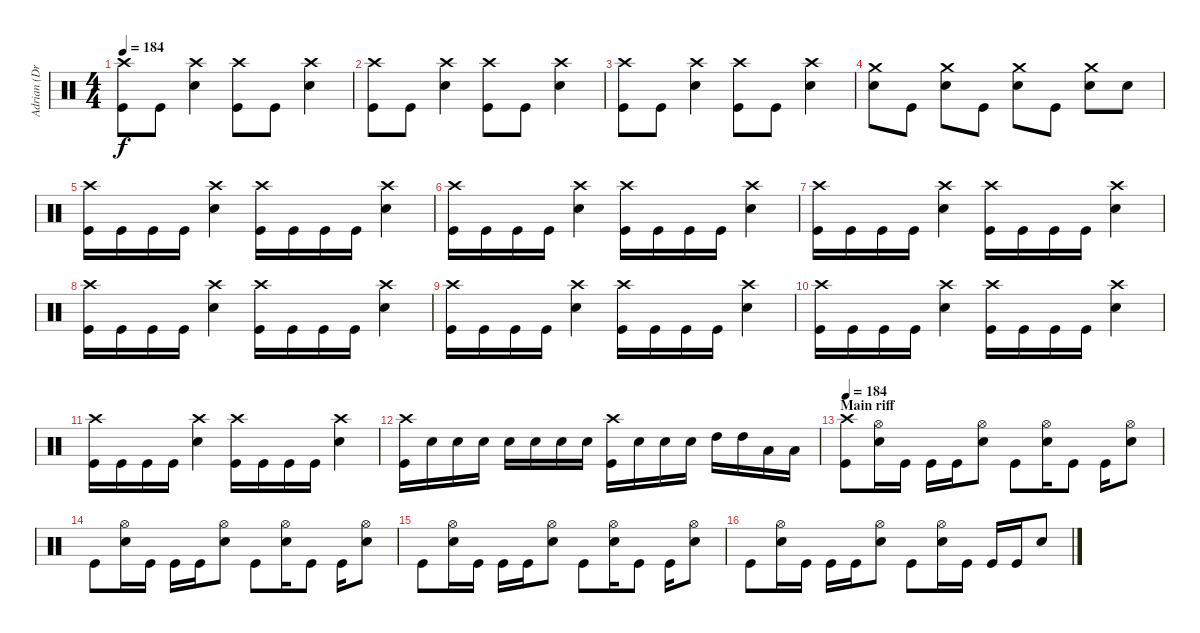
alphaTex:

\track ("Adrian (Drums)" "Adrian (Dr") {instrument percussion}
\staff {score}
\articulation defaults
\ts (4 4)
\tempo 184
\clef neutral
\ks c
("Crash high (hit)" "Kick (hit)").8{dy f} "Kick (hit)".8 ("Crash high (hit)" "Electric Snare (hit)").4 ("Crash high (hit)" "Kick (hit)").8 "Kick (hit)".8 ("Crash high (hit)" "Electric Snare (hit)").4 |
("Crash high (hit)" "Kick (hit)").8 "Kick (hit)".8 ("Crash high (hit)" "Electric Snare (hit)").4 ("Crash high (hit)" "Kick (hit)").8 "Kick (hit)".8 ("Crash high (hit)" "Electric Snare (hit)").4 |
("Crash high (hit)" "Kick (hit)").8 "Kick (hit)".8 ("Crash high (hit)" "Electric Snare (hit)").4 ("Crash high (hit)" "Kick (hit)").8 "Kick (hit)".8 ("Crash high (hit)" "Electric Snare (hit)").4 |
("Crash medium (hit)" "Electric Snare (hit)").8 "Kick (hit)".8 ("Crash medium (hit)" "Electric Snare (hit)").8 "Kick (hit)".8 ("Crash medium (hit)" "Electric Snare (hit)").8 "Kick (hit)".8 ("Crash medium (hit)" "Electric Snare (hit)").8 "Electric Snare (hit)".8 |
("Crash high (hit)" "Kick (hit)").16 "Kick (hit)".16 "Kick (hit)".16 "Kick (hit)".16 ("Crash high (hit)" "Electric Snare (hit)").4 ("Crash high (hit)" "Kick (hit)").16 "Kick (hit)".16 "Kick (hit)".16 "Kick (hit)".16 ("Crash high (hit)" "Electric Snare (hit)").4 |
("Crash high (hit)" "Kick (hit)").16 "Kick (hit)".16 "Kick (hit)".16 "Kick (hit)".16 ("Crash high (hit)" "Electric Snare (hit)").4 ("Crash high (hit)" "Kick (hit)").16 "Kick (hit)".16 "Kick (hit)".16 "Kick (hit)".16 ("Crash high (hit)" "Electric Snare (hit)").4 |
("Crash high (hit)" "Kick (hit)").16 "Kick (hit)".16 "Kick (hit)".16 "Kick (hit)".16 ("Crash high (hit)" "Electric Snare (hit)").4 ("Crash high (hit)" "Kick (hit)").16 "Kick (hit)".16 "Kick (hit)".16 "Kick (hit)".16 ("Crash high (hit)" "Electric Snare (hit)").4 |
("Crash high (hit)" "Kick (hit)").16 "Kick (hit)".16 "Kick (hit)".16 "Kick (hit)".16 ("Crash high (hit)" "Electric Snare (hit)").4 ("Crash high (hit)" "Kick (hit)").16 "Kick (hit)".16 "Kick (hit)".16 "Kick (hit)".16 ("Crash high (hit)" "Electric Snare (hit)").4 |
("Crash high (hit)" "Kick (hit)").16 "Kick (hit)".16 "Kick (hit)".16 "Kick (hit)".16 ("Crash high (hit)" "Electric Snare (hit)").4 ("Crash high (hit)" "Kick (hit)").16 "Kick (hit)".16 "Kick (hit)".16 "Kick (hit)".16 ("Crash high (hit)" "Electric Snare (hit)").4 |
("Crash high (hit)" "Kick (hit)").16 "Kick (hit)".16 "Kick (hit)".16 "Kick (hit)".16 ("Crash high (hit)" "Electric Snare (hit)").4 ("Crash high (hit)" "Kick (hit)").16 "Kick (hit)".16 "Kick (hit)".16 "Kick (hit)".16 ("Crash high (hit)" "Electric Snare (hit)").4 |
("Crash high (hit)" "Kick (hit)").16 "Kick (hit)".16 "Kick (hit)".16 "Kick (hit)".16 ("Crash high (hit)" "Electric Snare (hit)").4 ("Crash high (hit)" "Kick (hit)").16 "Kick (hit)".16 "Kick (hit)".16 "Kick (hit)".16 ("Crash high (hit)" "Electric Snare (hit)").4 |
("Crash high (hit)" "Kick (hit)").16 "Electric Snare (hit)".16 "Electric Snare (hit)".16 "Electric Snare (hit)".16 "Electric Snare (hit)".16 "Electric Snare (hit)".16 "Electric Snare (hit)".16 "Electric Snare (hit)".16 ("Crash high (hit)" "Kick (hit)").16 "Electric Snare (hit)".16 "Electric Snare (hit)".16 "Electric Snare (hit)".16 "High Tom (hit)".16 "High Tom (hit)".16 "Low Tom (hit)".16 "Low Tom (hit)".16 |
\section ("" "Main riff")
\tempo 184
("Crash high (hit)" "Kick (hit)").8 ("Hi-Hat (open)" "Electric Snare (hit)").16 "Kick (hit)".16 "Kick (hit)".16 "Kick (hit)".16 ("Hi-Hat (open)" "Electric Snare (hit)").8 "Kick (hit)".8 ("Hi-Hat (open)" "Electric Snare (hit)").16 "Kick (hit)".8 "Kick (hit)".16 ("Hi-Hat (open)" "Electric Snare (hit)").8 |
"Kick (hit)".8 ("Hi-Hat (open)" "Electric Snare (hit)").16 "Kick (hit)".16 "Kick (hit)".16 "Kick (hit)".16 ("Hi-Hat (open)" "Electric Snare (hit)").8 "Kick (hit)".8 ("Hi-Hat (open)" "Electric Snare (hit)").16 "Kick (hit)".8 "Kick (hit)".16 ("Hi-Hat (open)" "Electric Snare (hit)").8 |
"Kick (hit)".8 ("Hi-Hat (open)" "Electric Snare (hit)").16 "Kick (hit)".16 "Kick (hit)".16 "Kick (hit)".16 ("Hi-Hat (open)" "Electric Snare (hit)").8 "Kick (hit)".8 ("Hi-Hat (open)" "Electric Snare (hit)").16 "Kick (hit)".8 "Kick (hit)".16 ("Hi-Hat (open)" "Electric Snare (hit)").8 |
"Kick (hit)".8 ("Hi-Hat (open)" "Electric Snare (hit)").16 "Kick (hit)".16 "Kick (hit)".16 "Kick (hit)".16 ("Hi-Hat (open)" "Electric Snare (hit)").8 "Kick (hit)".8 ("Hi-Hat (open)" "Electric Snare (hit)").16 "Kick (hit)".16 "Kick (hit)".16 "Kick (hit)".16 "Electric Snare (hit)".8
